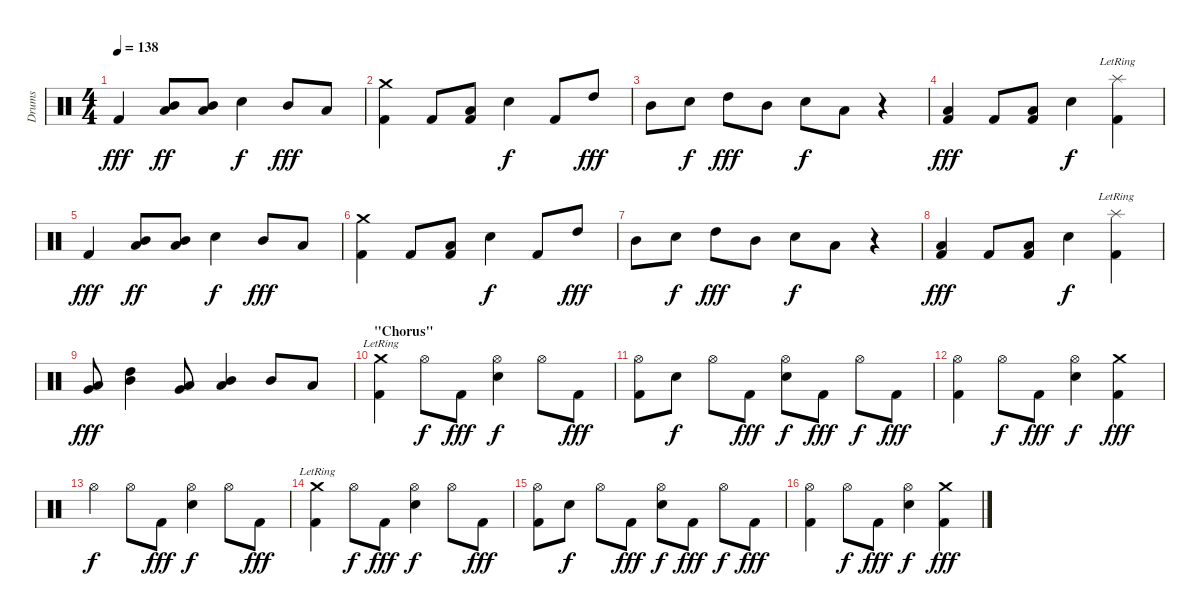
\track ("Drums" "Drums") {instrument percussion}
\staff {score}
\articulation defaults
\ts (4 4)
\tempo 138
\clef neutral
\ks c "Kick (hit) 2".4{dy fff}
("Mid Tom (hit)" "Low Tom (hit)").8{dy ff} ("Mid Tom (hit)" "Low Tom (hit)").8 "Snare (hit) 2".4{dy f} "Mid Tom (hit)".8{dy fff} "Low Tom (hit)".8 |
("Crash medium (hit)" "Kick (hit) 2").4 "Kick (hit) 2".8 ("Low Tom (hit)" "Kick (hit) 2").8 "Snare (hit) 2".4{dy f} "Kick (hit) 2".8 "High Tom (hit)".8{dy fff} |
"Mid Tom (hit)".8 "Snare (hit) 2".8{dy f} "High Tom (hit)".8{dy fff} "Mid Tom (hit)".8 "Snare (hit) 2".8{dy f} "Low Tom (hit)".8 r.4 |
("Low Tom (hit)" "Kick (hit) 2").4{dy fff} "Kick (hit) 2".8 ("Low Tom (hit)" "Kick (hit) 2").8 "Snare (hit) 2".4{dy f} ("Splash (hit)"{lr} "Kick (hit) 2").4 |
"Kick (hit) 2".4{dy fff} ("Mid Tom (hit)" "Low Tom (hit)").8{dy ff} ("Mid Tom (hit)" "Low Tom (hit)").8 "Snare (hit) 2".4{dy f} "Mid Tom (hit)".8{dy fff} "Low Tom (hit)".8 |
("Crash medium (hit)" "Kick (hit) 2").4 "Kick (hit) 2".8 ("Low Tom (hit)" "Kick (hit) 2").8 "Snare (hit) 2".4{dy f} "Kick (hit) 2".8 "High Tom (hit)".8{dy fff} |
"Mid Tom (hit)".8 "Snare (hit) 2".8{dy f} "High Tom (hit)".8{dy fff} "Mid Tom (hit)".8 "Snare (hit) 2".8{dy f} "Low Tom (hit)".8 r.4 |
("Low Tom (hit)" "Kick (hit) 2").4{dy fff} "Kick (hit) 2".8 ("Low Tom (hit)" "Kick (hit) 2").8 "Snare (hit) 2".4{dy f} ("Splash (hit)"{lr} "Kick (hit) 2").4 |
("Low Tom (hit)" "Very Low Tom (hit)").8{dy fff} ("High Tom (hit)" "Mid Tom (hit)").4 ("Low Tom (hit)" "Very Low Tom (hit)").8 ("Mid Tom (hit)" "Low Tom (hit)").4 "Mid Tom (hit)".8 "Low Tom (hit)".8 |
\section ("" "\"Chorus\"")
("Crash medium (hit)"{lr} "Kick (hit) 2").4 "Hi-Hat (open)".8{dy f} "Kick (hit) 2".8{dy fff} ("Hi-Hat (open)" "Snare (hit) 2").4{dy f} "Hi-Hat (open)".8 "Kick (hit) 2".8{dy fff} |
("Hi-Hat (open)" "Kick (hit) 2").8 "Snare (hit) 2".8{dy f} "Hi-Hat (open)".8 "Kick (hit) 2".8{dy fff} ("Hi-Hat (open)" "Snare (hit) 2").8{dy f} "Kick (hit) 2".8{dy fff} "Hi-Hat (open)".8{dy f} "Kick (hit) 2".8{dy fff} |
("Hi-Hat (open)" "Kick (hit) 2").4 "Hi-Hat (open)".8{dy f} "Kick (hit) 2".8{dy fff} ("Hi-Hat (open)" "Snare (hit) 2").4{dy f} ("Crash medium (hit)" "Kick (hit) 2").4{dy fff} |
"Hi-Hat (open)".4{dy f} "Hi-Hat (open)".8 "Kick (hit) 2".8{dy fff} ("Hi-Hat (open)" "Snare (hit) 2").4{dy f} "Hi-Hat (open)".8 "Kick (hit) 2".8{dy fff} |
("Crash medium (hit)"{lr} "Kick (hit) 2").4 "Hi-Hat (open)".8{dy f} "Kick (hit) 2".8{dy fff} ("Hi-Hat (open)" "Snare (hit) 2").4{dy f} "Hi-Hat (open)".8 "Kick (hit) 2".8{dy fff} |
("Hi-Hat (open)" "Kick (hit) 2").8 "Snare (hit) 2".8{dy f} "Hi-Hat (open)".8 "Kick (hit) 2".8{dy fff} ("Hi-Hat (open)" "Snare (hit) 2").8{dy f} "Kick (hit) 2".8{dy fff} "Hi-Hat (open)".8{dy f} "Kick (hit) 2".8{dy fff} |
("Hi-Hat (open)" "Kick (hit) 2").4 "Hi-Hat (open)".8{dy f} "Kick (hit) 2".8{dy fff} ("Hi-Hat (open)" "Snare (hit) 2").4{dy f} ("Crash medium (hit)" "Kick (hit) 2").4{dy fff}
